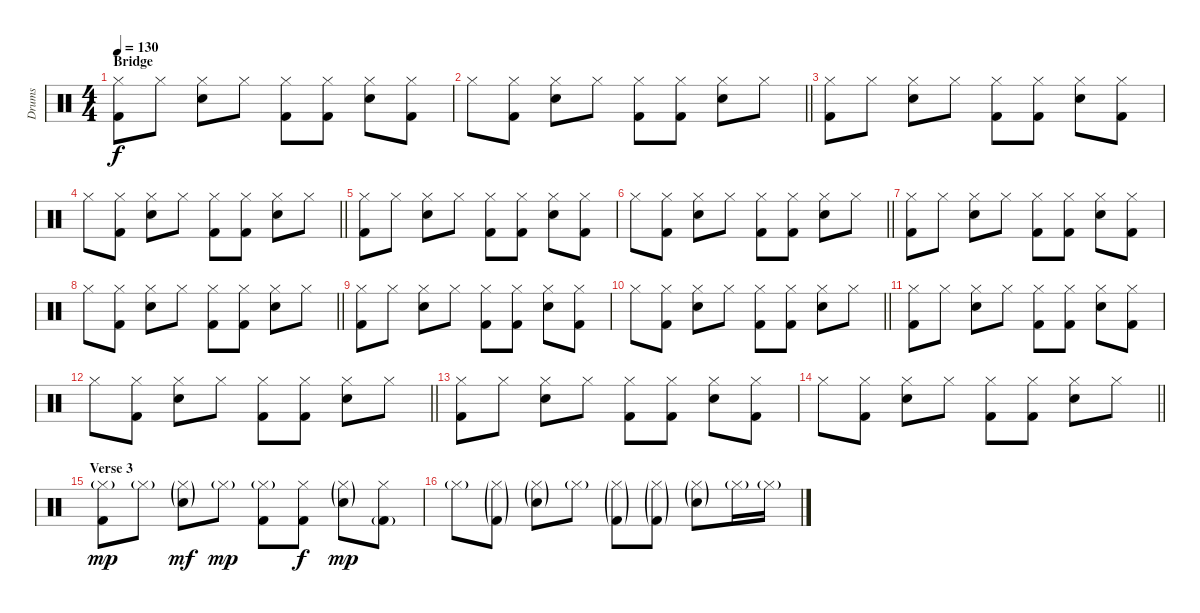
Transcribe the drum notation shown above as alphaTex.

\track ("Drums" "Drums") {instrument percussion}
\staff {score}
\articulation defaults
\ts (4 4)
\section ("" "Bridge")
\tempo 130
\clef neutral
\ks c
("Hi-Hat (closed)" "Kick (hit) 2").8{dy f} "Hi-Hat (closed)".8 ("Hi-Hat (closed)" "Electric Snare (hit)").8 "Hi-Hat (closed)".8 ("Hi-Hat (closed)" "Kick (hit) 2").8 ("Hi-Hat (closed)" "Kick (hit) 2").8 ("Hi-Hat (closed)" "Electric Snare (hit)").8 ("Hi-Hat (closed)" "Kick (hit) 2").8 |
\barLineRight lightlight "Hi-Hat (closed)".8
("Hi-Hat (closed)" "Kick (hit) 2").8 ("Hi-Hat (closed)" "Electric Snare (hit)").8 "Hi-Hat (closed)".8 ("Hi-Hat (closed)" "Kick (hit) 2").8 ("Hi-Hat (closed)" "Kick (hit) 2").8 ("Hi-Hat (closed)" "Electric Snare (hit)").8 "Hi-Hat (closed)".8 |
("Hi-Hat (closed)" "Kick (hit) 2").8 "Hi-Hat (closed)".8 ("Hi-Hat (closed)" "Electric Snare (hit)").8 "Hi-Hat (closed)".8 ("Hi-Hat (closed)" "Kick (hit) 2").8 ("Hi-Hat (closed)" "Kick (hit) 2").8 ("Hi-Hat (closed)" "Electric Snare (hit)").8 ("Hi-Hat (closed)" "Kick (hit) 2").8 |
\barLineRight lightlight "Hi-Hat (closed)".8
("Hi-Hat (closed)" "Kick (hit) 2").8 ("Hi-Hat (closed)" "Electric Snare (hit)").8 "Hi-Hat (closed)".8 ("Hi-Hat (closed)" "Kick (hit) 2").8 ("Hi-Hat (closed)" "Kick (hit) 2").8 ("Hi-Hat (closed)" "Electric Snare (hit)").8 "Hi-Hat (closed)".8 |
("Hi-Hat (closed)" "Kick (hit) 2").8 "Hi-Hat (closed)".8 ("Hi-Hat (closed)" "Electric Snare (hit)").8 "Hi-Hat (closed)".8 ("Hi-Hat (closed)" "Kick (hit) 2").8 ("Hi-Hat (closed)" "Kick (hit) 2").8 ("Hi-Hat (closed)" "Electric Snare (hit)").8 ("Hi-Hat (closed)" "Kick (hit) 2").8 |
\barLineRight lightlight "Hi-Hat (closed)".8
("Hi-Hat (closed)" "Kick (hit) 2").8 ("Hi-Hat (closed)" "Electric Snare (hit)").8 "Hi-Hat (closed)".8 ("Hi-Hat (closed)" "Kick (hit) 2").8 ("Hi-Hat (closed)" "Kick (hit) 2").8 ("Hi-Hat (closed)" "Electric Snare (hit)").8 "Hi-Hat (closed)".8 |
("Hi-Hat (closed)" "Kick (hit) 2").8 "Hi-Hat (closed)".8 ("Hi-Hat (closed)" "Electric Snare (hit)").8 "Hi-Hat (closed)".8 ("Hi-Hat (closed)" "Kick (hit) 2").8 ("Hi-Hat (closed)" "Kick (hit) 2").8 ("Hi-Hat (closed)" "Electric Snare (hit)").8 ("Hi-Hat (closed)" "Kick (hit) 2").8 |
\barLineRight lightlight "Hi-Hat (closed)".8
("Hi-Hat (closed)" "Kick (hit) 2").8 ("Hi-Hat (closed)" "Electric Snare (hit)").8 "Hi-Hat (closed)".8 ("Hi-Hat (closed)" "Kick (hit) 2").8 ("Hi-Hat (closed)" "Kick (hit) 2").8 ("Hi-Hat (closed)" "Electric Snare (hit)").8 "Hi-Hat (closed)".8 |
("Hi-Hat (closed)" "Kick (hit) 2").8 "Hi-Hat (closed)".8 ("Hi-Hat (closed)" "Electric Snare (hit)").8 "Hi-Hat (closed)".8 ("Hi-Hat (closed)" "Kick (hit) 2").8 ("Hi-Hat (closed)" "Kick (hit) 2").8 ("Hi-Hat (closed)" "Electric Snare (hit)").8 ("Hi-Hat (closed)" "Kick (hit) 2").8 |
\barLineRight lightlight "Hi-Hat (closed)".8
("Hi-Hat (closed)" "Kick (hit) 2").8 ("Hi-Hat (closed)" "Electric Snare (hit)").8 "Hi-Hat (closed)".8 ("Hi-Hat (closed)" "Kick (hit) 2").8 ("Hi-Hat (closed)" "Kick (hit) 2").8 ("Hi-Hat (closed)" "Electric Snare (hit)").8 "Hi-Hat (closed)".8 |
("Hi-Hat (closed)" "Kick (hit) 2").8 "Hi-Hat (closed)".8 ("Hi-Hat (closed)" "Electric Snare (hit)").8 "Hi-Hat (closed)".8 ("Hi-Hat (closed)" "Kick (hit) 2").8 ("Hi-Hat (closed)" "Kick (hit) 2").8 ("Hi-Hat (closed)" "Electric Snare (hit)").8 ("Hi-Hat (closed)" "Kick (hit) 2").8 |
\barLineRight lightlight "Hi-Hat (closed)".8
("Hi-Hat (closed)" "Kick (hit) 2").8 ("Hi-Hat (closed)" "Electric Snare (hit)").8 "Hi-Hat (closed)".8 ("Hi-Hat (closed)" "Kick (hit) 2").8 ("Hi-Hat (closed)" "Kick (hit) 2").8 ("Hi-Hat (closed)" "Electric Snare (hit)").8 "Hi-Hat (closed)".8 |
("Hi-Hat (closed)" "Kick (hit) 2").8 "Hi-Hat (closed)".8 ("Hi-Hat (closed)" "Electric Snare (hit)").8 "Hi-Hat (closed)".8 ("Hi-Hat (closed)" "Kick (hit) 2").8 ("Hi-Hat (closed)" "Kick (hit) 2").8 ("Hi-Hat (closed)" "Electric Snare (hit)").8 ("Hi-Hat (closed)" "Kick (hit) 2").8 |
\barLineRight lightlight "Hi-Hat (closed)".8
("Hi-Hat (closed)" "Kick (hit) 2").8 ("Hi-Hat (closed)" "Electric Snare (hit)").8 "Hi-Hat (closed)".8 ("Hi-Hat (closed)" "Kick (hit) 2").8 ("Hi-Hat (closed)" "Kick (hit) 2").8 ("Hi-Hat (closed)" "Electric Snare (hit)").8 "Hi-Hat (closed)".8 |
\section ("" "Verse 3")
("Hi-Hat (closed)"{g} "Kick (hit) 2").8{dy mp} "Hi-Hat (closed)"{g}.8 ("Hi-Hat (closed)"{g} "Electric Snare (hit)"{g}).8{dy mf} "Hi-Hat (closed)"{g}.8{dy mp} ("Hi-Hat (closed)"{g} "Kick (hit) 2").8 ("Hi-Hat (closed)" "Kick (hit) 2").8{dy f} ("Hi-Hat (closed)"{g} "Electric Snare (hit)"{g}).8{dy mp} ("Hi-Hat (closed)" "Kick (hit) 2"{g}).8 |
"Hi-Hat (closed)"{g}.8 ("Hi-Hat (closed)"{g} "Kick (hit) 2"{g}).8 ("Hi-Hat (closed)"{g} "Electric Snare (hit)"{g}).8 "Hi-Hat (closed)"{g}.8 ("Hi-Hat (closed)"{g} "Kick (hit) 2"{g}).8 ("Hi-Hat (closed)"{g} "Kick (hit) 2"{g}).8 ("Hi-Hat (closed)"{g} "Electric Snare (hit)"{g}).8 "Hi-Hat (closed)"{g}.16 "Hi-Hat (closed)"{g}.16
